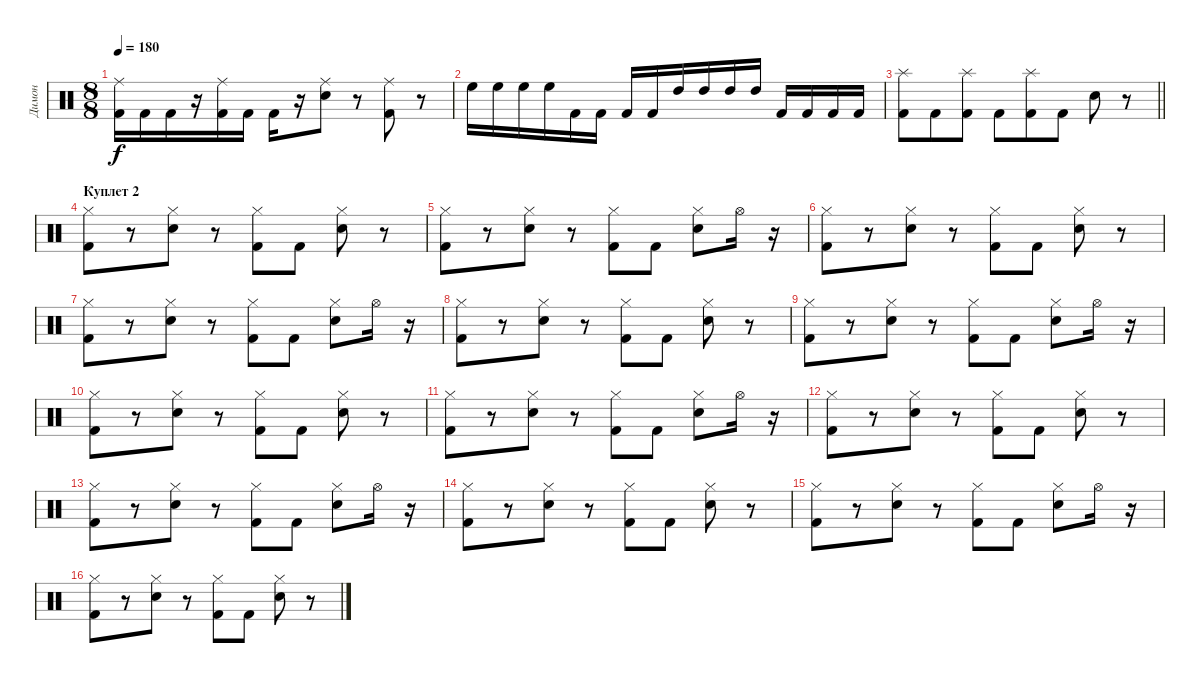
\track ("Димон" "Димон") {instrument percussion}
\staff {score}
\articulation defaults
\ts (8 8)
\tempo 180
\clef neutral
\ks c
("Kick (hit) 2" "Ride (middle)").16{dy f} "Kick (hit) 2".16 "Kick (hit) 2".16 r.16 ("Kick (hit) 2" "Ride (middle)").16 "Kick (hit) 2".16 "Kick (hit) 2".16 r.16 ("Electric Snare (hit)" "Ride (middle)").8 r.8 ("Kick (hit) 2" "Ride (middle)").8 r.8 |
"High Floor Tom (hit)".16 "High Floor Tom (hit)".16 "High Floor Tom (hit)".16 "High Floor Tom (hit)".16 "Kick (hit) 2".16 "Kick (hit) 2".16 "Kick (hit) 2".16 "Kick (hit) 2".16 "High Tom (hit)".16 "High Tom (hit)".16 "High Tom (hit)".16 "High Tom (hit)".16 "Kick (hit) 2".16 "Kick (hit) 2".16 "Kick (hit) 2".16 "Kick (hit) 2".16 |
\barLineRight lightlight
("Splash (hit)" "Kick (hit) 2").8 "Kick (hit) 2".8 ("Splash (hit)" "Kick (hit) 2").8 "Kick (hit) 2".8 ("Splash (hit)" "Kick (hit) 2").8 "Kick (hit) 2".8 "Electric Snare (hit)".8 r.8 |
\section ("" "Куплет 2")
("Hi-Hat (closed)" "Kick (hit) 2").8 r.8 ("Hi-Hat (closed)" "Electric Snare (hit)").8 r.8 ("Hi-Hat (closed)" "Kick (hit) 2").8 "Kick (hit) 2".8 ("Hi-Hat (closed)" "Electric Snare (hit)").8 r.8 |
("Hi-Hat (closed)" "Kick (hit) 2").8 r.8 ("Hi-Hat (closed)" "Electric Snare (hit)").8 r.8 ("Hi-Hat (closed)" "Kick (hit) 2").8 "Kick (hit) 2".8 ("Hi-Hat (closed)" "Electric Snare (hit)").8 "Hi-Hat (open)".16 r.16 |
("Hi-Hat (closed)" "Kick (hit) 2").8 r.8 ("Hi-Hat (closed)" "Electric Snare (hit)").8 r.8 ("Hi-Hat (closed)" "Kick (hit) 2").8 "Kick (hit) 2".8 ("Hi-Hat (closed)" "Electric Snare (hit)").8 r.8 |
("Hi-Hat (closed)" "Kick (hit) 2").8 r.8 ("Hi-Hat (closed)" "Electric Snare (hit)").8 r.8 ("Hi-Hat (closed)" "Kick (hit) 2").8 "Kick (hit) 2".8 ("Hi-Hat (closed)" "Electric Snare (hit)").8 "Hi-Hat (open)".16 r.16 |
("Hi-Hat (closed)" "Kick (hit) 2").8 r.8 ("Hi-Hat (closed)" "Electric Snare (hit)").8 r.8 ("Hi-Hat (closed)" "Kick (hit) 2").8 "Kick (hit) 2".8 ("Hi-Hat (closed)" "Electric Snare (hit)").8 r.8 |
("Hi-Hat (closed)" "Kick (hit) 2").8 r.8 ("Hi-Hat (closed)" "Electric Snare (hit)").8 r.8 ("Hi-Hat (closed)" "Kick (hit) 2").8 "Kick (hit) 2".8 ("Hi-Hat (closed)" "Electric Snare (hit)").8 "Hi-Hat (open)".16 r.16 |
("Hi-Hat (closed)" "Kick (hit) 2").8 r.8 ("Hi-Hat (closed)" "Electric Snare (hit)").8 r.8 ("Hi-Hat (closed)" "Kick (hit) 2").8 "Kick (hit) 2".8 ("Hi-Hat (closed)" "Electric Snare (hit)").8 r.8 |
("Hi-Hat (closed)" "Kick (hit) 2").8 r.8 ("Hi-Hat (closed)" "Electric Snare (hit)").8 r.8 ("Hi-Hat (closed)" "Kick (hit) 2").8 "Kick (hit) 2".8 ("Hi-Hat (closed)" "Electric Snare (hit)").8 "Hi-Hat (open)".16 r.16 |
("Hi-Hat (closed)" "Kick (hit) 2").8 r.8 ("Hi-Hat (closed)" "Electric Snare (hit)").8 r.8 ("Hi-Hat (closed)" "Kick (hit) 2").8 "Kick (hit) 2".8 ("Hi-Hat (closed)" "Electric Snare (hit)").8 r.8 |
("Hi-Hat (closed)" "Kick (hit) 2").8 r.8 ("Hi-Hat (closed)" "Electric Snare (hit)").8 r.8 ("Hi-Hat (closed)" "Kick (hit) 2").8 "Kick (hit) 2".8 ("Hi-Hat (closed)" "Electric Snare (hit)").8 "Hi-Hat (open)".16 r.16 |
("Hi-Hat (closed)" "Kick (hit) 2").8 r.8 ("Hi-Hat (closed)" "Electric Snare (hit)").8 r.8 ("Hi-Hat (closed)" "Kick (hit) 2").8 "Kick (hit) 2".8 ("Hi-Hat (closed)" "Electric Snare (hit)").8 r.8 |
("Hi-Hat (closed)" "Kick (hit) 2").8 r.8 ("Hi-Hat (closed)" "Electric Snare (hit)").8 r.8 ("Hi-Hat (closed)" "Kick (hit) 2").8 "Kick (hit) 2".8 ("Hi-Hat (closed)" "Electric Snare (hit)").8 "Hi-Hat (open)".16 r.16 |
("Hi-Hat (closed)" "Kick (hit) 2").8 r.8 ("Hi-Hat (closed)" "Electric Snare (hit)").8 r.8 ("Hi-Hat (closed)" "Kick (hit) 2").8 "Kick (hit) 2".8 ("Hi-Hat (closed)" "Electric Snare (hit)").8 r.8
